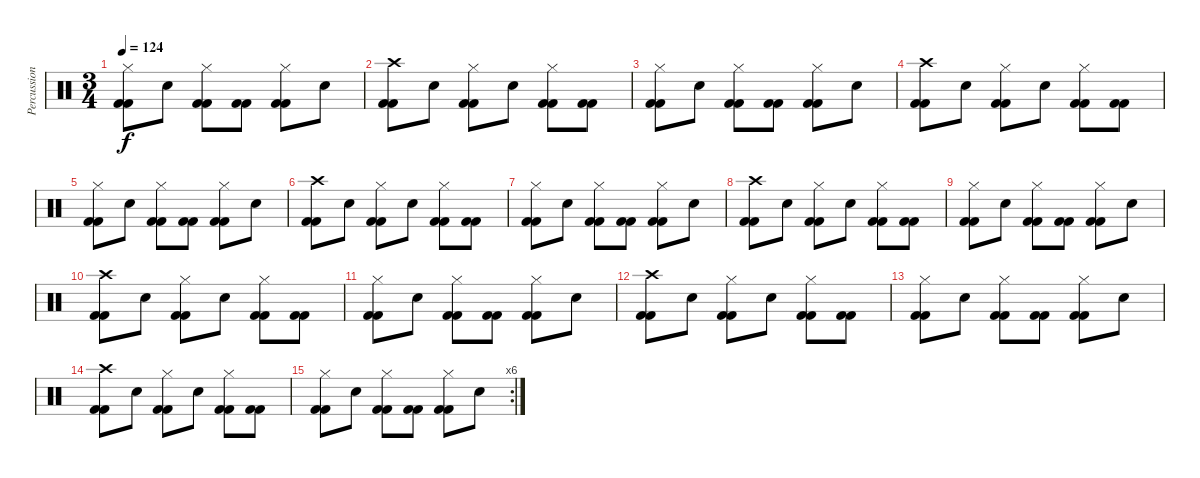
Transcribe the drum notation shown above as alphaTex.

\track ("Percussion" "Percussion") {instrument percussion}
\staff {score}
\articulation defaults
\ts (3 4)
\tempo 124
\clef neutral
\ks c
("Hi-Hat (closed)" "Kick (hit) 2" "Kick (hit) 2").8{dy f} "Snare (hit) 2".8 ("Hi-Hat (closed)" "Kick (hit) 2" "Kick (hit) 2").8 ("Kick (hit) 2" "Kick (hit) 2").8 ("Hi-Hat (closed)" "Kick (hit) 2" "Kick (hit) 2").8 "Snare (hit) 2".8 |
("Crash high (hit)" "Kick (hit) 2" "Kick (hit) 2").8 "Snare (hit) 2".8 ("Hi-Hat (closed)" "Kick (hit) 2" "Kick (hit) 2").8 "Snare (hit) 2".8 ("Hi-Hat (closed)" "Kick (hit) 2" "Kick (hit) 2").8 ("Kick (hit) 2" "Kick (hit) 2").8 |
("Hi-Hat (closed)" "Kick (hit) 2" "Kick (hit) 2").8 "Snare (hit) 2".8 ("Hi-Hat (closed)" "Kick (hit) 2" "Kick (hit) 2").8 ("Kick (hit) 2" "Kick (hit) 2").8 ("Hi-Hat (closed)" "Kick (hit) 2" "Kick (hit) 2").8 "Snare (hit) 2".8 |
("Crash high (hit)" "Kick (hit) 2" "Kick (hit) 2").8 "Snare (hit) 2".8 ("Hi-Hat (closed)" "Kick (hit) 2" "Kick (hit) 2").8 "Snare (hit) 2".8 ("Hi-Hat (closed)" "Kick (hit) 2" "Kick (hit) 2").8 ("Kick (hit) 2" "Kick (hit) 2").8 |
("Hi-Hat (closed)" "Kick (hit) 2" "Kick (hit) 2").8 "Snare (hit) 2".8 ("Hi-Hat (closed)" "Kick (hit) 2" "Kick (hit) 2").8 ("Kick (hit) 2" "Kick (hit) 2").8 ("Hi-Hat (closed)" "Kick (hit) 2" "Kick (hit) 2").8 "Snare (hit) 2".8 |
("Crash high (hit)" "Kick (hit) 2" "Kick (hit) 2").8 "Snare (hit) 2".8 ("Hi-Hat (closed)" "Kick (hit) 2" "Kick (hit) 2").8 "Snare (hit) 2".8 ("Hi-Hat (closed)" "Kick (hit) 2" "Kick (hit) 2").8 ("Kick (hit) 2" "Kick (hit) 2").8 |
("Hi-Hat (closed)" "Kick (hit) 2" "Kick (hit) 2").8 "Snare (hit) 2".8 ("Hi-Hat (closed)" "Kick (hit) 2" "Kick (hit) 2").8 ("Kick (hit) 2" "Kick (hit) 2").8 ("Hi-Hat (closed)" "Kick (hit) 2" "Kick (hit) 2").8 "Snare (hit) 2".8 |
("Crash high (hit)" "Kick (hit) 2" "Kick (hit) 2").8 "Snare (hit) 2".8 ("Hi-Hat (closed)" "Kick (hit) 2" "Kick (hit) 2").8 "Snare (hit) 2".8 ("Hi-Hat (closed)" "Kick (hit) 2" "Kick (hit) 2").8 ("Kick (hit) 2" "Kick (hit) 2").8 |
("Hi-Hat (closed)" "Kick (hit) 2" "Kick (hit) 2").8 "Snare (hit) 2".8 ("Hi-Hat (closed)" "Kick (hit) 2" "Kick (hit) 2").8 ("Kick (hit) 2" "Kick (hit) 2").8 ("Hi-Hat (closed)" "Kick (hit) 2" "Kick (hit) 2").8 "Snare (hit) 2".8 |
("Crash high (hit)" "Kick (hit) 2" "Kick (hit) 2").8 "Snare (hit) 2".8 ("Hi-Hat (closed)" "Kick (hit) 2" "Kick (hit) 2").8 "Snare (hit) 2".8 ("Hi-Hat (closed)" "Kick (hit) 2" "Kick (hit) 2").8 ("Kick (hit) 2" "Kick (hit) 2").8 |
("Hi-Hat (closed)" "Kick (hit) 2" "Kick (hit) 2").8 "Snare (hit) 2".8 ("Hi-Hat (closed)" "Kick (hit) 2" "Kick (hit) 2").8 ("Kick (hit) 2" "Kick (hit) 2").8 ("Hi-Hat (closed)" "Kick (hit) 2" "Kick (hit) 2").8 "Snare (hit) 2".8 |
("Crash high (hit)" "Kick (hit) 2" "Kick (hit) 2").8 "Snare (hit) 2".8 ("Hi-Hat (closed)" "Kick (hit) 2" "Kick (hit) 2").8 "Snare (hit) 2".8 ("Hi-Hat (closed)" "Kick (hit) 2" "Kick (hit) 2").8 ("Kick (hit) 2" "Kick (hit) 2").8 |
("Hi-Hat (closed)" "Kick (hit) 2" "Kick (hit) 2").8 "Snare (hit) 2".8 ("Hi-Hat (closed)" "Kick (hit) 2" "Kick (hit) 2").8 ("Kick (hit) 2" "Kick (hit) 2").8 ("Hi-Hat (closed)" "Kick (hit) 2" "Kick (hit) 2").8 "Snare (hit) 2".8 |
("Crash high (hit)" "Kick (hit) 2" "Kick (hit) 2").8 "Snare (hit) 2".8 ("Hi-Hat (closed)" "Kick (hit) 2" "Kick (hit) 2").8 "Snare (hit) 2".8 ("Hi-Hat (closed)" "Kick (hit) 2" "Kick (hit) 2").8 ("Kick (hit) 2" "Kick (hit) 2").8 |
\rc 6
("Hi-Hat (closed)" "Kick (hit) 2" "Kick (hit) 2").8 "Snare (hit) 2".8 ("Hi-Hat (closed)" "Kick (hit) 2" "Kick (hit) 2").8 ("Kick (hit) 2" "Kick (hit) 2").8 ("Hi-Hat (closed)" "Kick (hit) 2" "Kick (hit) 2").8 "Snare (hit) 2".8
